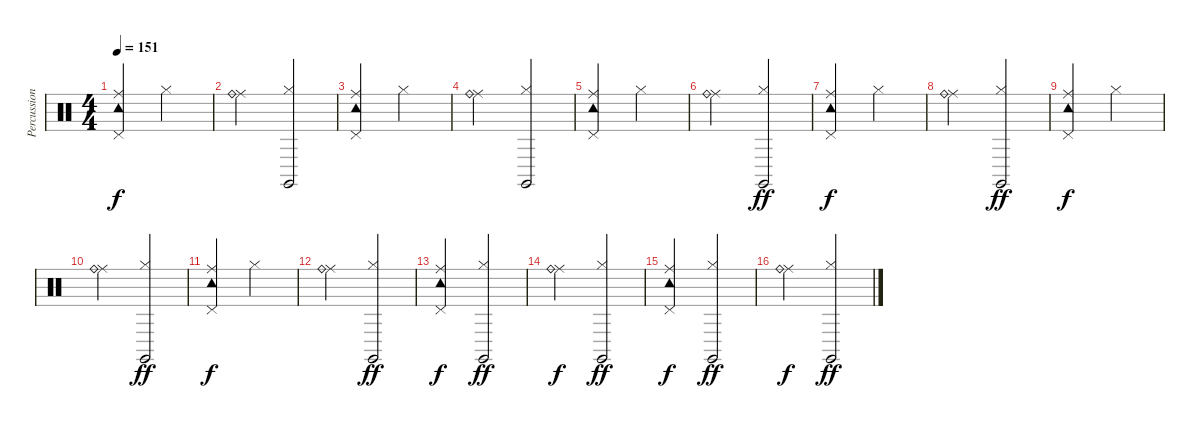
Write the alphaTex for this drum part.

\track ("Percussion" "Percussion") {instrument percussion}
\staff {score}
\articulation defaults
\ts (4 4)
\tempo 151
\clef neutral
\ks c
("Ride (middle)" "Tambourine (hit)" "Pedal Hi-Hat (hit)").2{dy f} "Hi-Hat (closed)".2 |
("Ride (middle)" "Ride (bell)").2 ("Hi-Hat (closed)" "Claves (hit)").2 |
("Ride (middle)" "Tambourine (hit)" "Pedal Hi-Hat (hit)").2 "Hi-Hat (closed)".2 |
("Ride (middle)" "Ride (bell)").2 ("Hi-Hat (closed)" "Claves (hit)").2 |
("Ride (middle)" "Tambourine (hit)" "Pedal Hi-Hat (hit)").2 "Hi-Hat (closed)".2 |
("Ride (middle)" "Ride (bell)").2 ("Hi-Hat (closed)" "Claves (hit)").2{dy ff} |
("Ride (middle)" "Tambourine (hit)" "Pedal Hi-Hat (hit)").2{dy f} "Hi-Hat (closed)".2 |
("Ride (middle)" "Ride (bell)").2 ("Hi-Hat (closed)" "Claves (hit)").2{dy ff} |
("Ride (middle)" "Tambourine (hit)" "Pedal Hi-Hat (hit)").2{dy f} "Hi-Hat (closed)".2 |
("Ride (middle)" "Ride (bell)").2 ("Hi-Hat (closed)" "Claves (hit)").2{dy ff} |
("Ride (middle)" "Tambourine (hit)" "Pedal Hi-Hat (hit)").2{dy f} "Hi-Hat (closed)".2 |
("Ride (middle)" "Ride (bell)").2 ("Hi-Hat (closed)" "Claves (hit)").2{dy ff} |
("Ride (middle)" "Tambourine (hit)" "Pedal Hi-Hat (hit)").2{dy f} ("Hi-Hat (closed)" "Claves (hit)").2{dy ff} |
("Ride (middle)" "Ride (bell)").2{dy f} ("Hi-Hat (closed)" "Claves (hit)").2{dy ff} |
("Ride (middle)" "Tambourine (hit)" "Pedal Hi-Hat (hit)").2{dy f} ("Hi-Hat (closed)" "Claves (hit)").2{dy ff} |
("Ride (middle)" "Ride (bell)").2{dy f} ("Hi-Hat (closed)" "Claves (hit)").2{dy ff}
